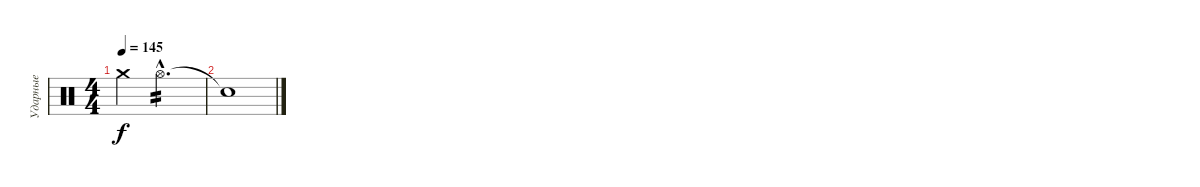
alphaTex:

\track ("Ударные" "Ударные") {instrument percussion}
\staff {score}
\articulation defaults
\ts (4 4)
\tempo 145
\clef neutral
\ks c "Crash medium (hit)".4{dy f} "Hi-Hat (open)"{hac}.2{d tp 2}
|
"Snare (hit)"{t}.1
